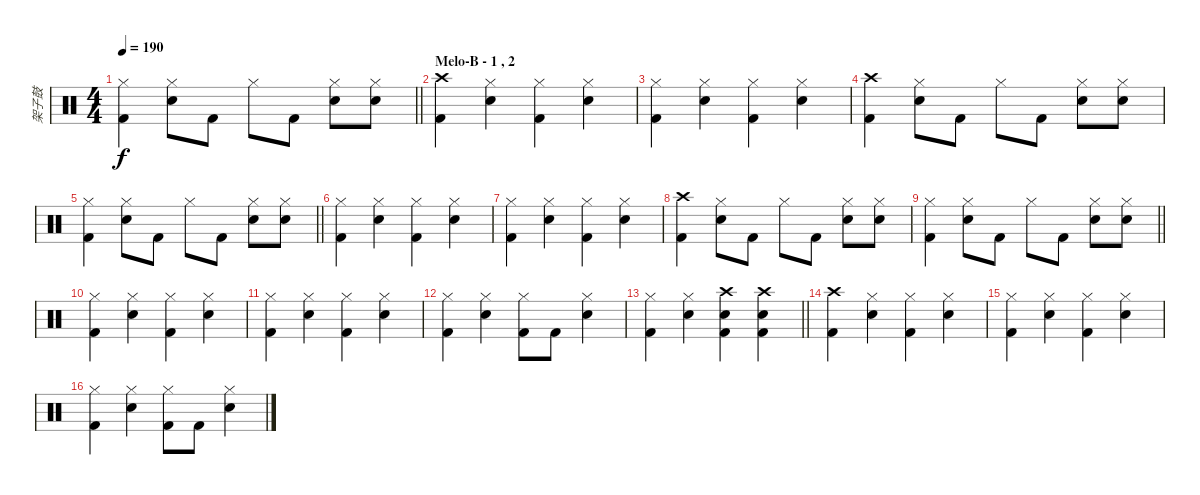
\track ("架子鼓" "架子鼓") {instrument percussion}
\staff {score}
\articulation defaults
\ts (4 4)
\tempo 190
\clef neutral
\barLineRight lightlight
\ks c
("Hi-Hat (closed)" "Kick (hit) 2").4{dy f} ("Hi-Hat (closed)" "Electric Snare (hit)").8 "Kick (hit) 2".8 "Hi-Hat (closed)".8 "Kick (hit) 2".8 ("Hi-Hat (closed)" "Electric Snare (hit)").8 ("Hi-Hat (closed)" "Electric Snare (hit)").8 |
\section ("" "Melo-B - 1 , 2")
("Crash high (hit)" "Kick (hit) 2").4 ("Hi-Hat (closed)" "Electric Snare (hit)").4 ("Hi-Hat (closed)" "Kick (hit) 2").4 ("Hi-Hat (closed)" "Electric Snare (hit)").4 |
("Hi-Hat (closed)" "Kick (hit) 2").4 ("Hi-Hat (closed)" "Electric Snare (hit)").4 ("Hi-Hat (closed)" "Kick (hit) 2").4 ("Hi-Hat (closed)" "Electric Snare (hit)").4 |
("Crash high (hit)" "Kick (hit) 2").4 ("Hi-Hat (closed)" "Electric Snare (hit)").8 "Kick (hit) 2".8 "Hi-Hat (closed)".8 "Kick (hit) 2".8 ("Hi-Hat (closed)" "Electric Snare (hit)").8 ("Hi-Hat (closed)" "Electric Snare (hit)").8 |
\barLineRight lightlight
("Hi-Hat (closed)" "Kick (hit) 2").4 ("Hi-Hat (closed)" "Electric Snare (hit)").8 "Kick (hit) 2".8 "Hi-Hat (closed)".8 "Kick (hit) 2".8 ("Hi-Hat (closed)" "Electric Snare (hit)").8 ("Hi-Hat (closed)" "Electric Snare (hit)").8 |
("Hi-Hat (closed)" "Kick (hit) 2").4 ("Hi-Hat (closed)" "Electric Snare (hit)").4 ("Hi-Hat (closed)" "Kick (hit) 2").4 ("Hi-Hat (closed)" "Electric Snare (hit)").4 |
("Hi-Hat (closed)" "Kick (hit) 2").4 ("Hi-Hat (closed)" "Electric Snare (hit)").4 ("Hi-Hat (closed)" "Kick (hit) 2").4 ("Hi-Hat (closed)" "Electric Snare (hit)").4 |
("Crash high (hit)" "Kick (hit) 2").4 ("Hi-Hat (closed)" "Electric Snare (hit)").8 "Kick (hit) 2".8 "Hi-Hat (closed)".8 "Kick (hit) 2".8 ("Hi-Hat (closed)" "Electric Snare (hit)").8 ("Hi-Hat (closed)" "Electric Snare (hit)").8 |
\barLineRight lightlight
("Hi-Hat (closed)" "Kick (hit) 2").4 ("Hi-Hat (closed)" "Electric Snare (hit)").8 "Kick (hit) 2".8 "Hi-Hat (closed)".8 "Kick (hit) 2".8 ("Hi-Hat (closed)" "Electric Snare (hit)").8 ("Hi-Hat (closed)" "Electric Snare (hit)").8 |
("Hi-Hat (closed)" "Kick (hit) 2").4 ("Hi-Hat (closed)" "Electric Snare (hit)").4 ("Hi-Hat (closed)" "Kick (hit) 2").4 ("Hi-Hat (closed)" "Electric Snare (hit)").4 |
("Hi-Hat (closed)" "Kick (hit) 2").4 ("Hi-Hat (closed)" "Electric Snare (hit)").4 ("Hi-Hat (closed)" "Kick (hit) 2").4 ("Hi-Hat (closed)" "Electric Snare (hit)").4 |
("Hi-Hat (closed)" "Kick (hit) 2").4 ("Hi-Hat (closed)" "Electric Snare (hit)").4 ("Hi-Hat (closed)" "Kick (hit) 2").8 "Kick (hit) 2".8 ("Hi-Hat (closed)" "Electric Snare (hit)").4 |
\barLineRight lightlight
("Hi-Hat (closed)" "Kick (hit) 2").4 ("Hi-Hat (closed)" "Electric Snare (hit)").4 ("Crash high (hit)" "Electric Snare (hit)" "Kick (hit) 2").4 ("Crash high (hit)" "Electric Snare (hit)" "Kick (hit) 2").4 |
("Crash high (hit)" "Kick (hit) 2").4 ("Hi-Hat (closed)" "Electric Snare (hit)").4 ("Hi-Hat (closed)" "Kick (hit) 2").4 ("Hi-Hat (closed)" "Electric Snare (hit)").4 |
("Hi-Hat (closed)" "Kick (hit) 2").4 ("Hi-Hat (closed)" "Electric Snare (hit)").4 ("Hi-Hat (closed)" "Kick (hit) 2").4 ("Hi-Hat (closed)" "Electric Snare (hit)").4 |
("Hi-Hat (closed)" "Kick (hit) 2").4 ("Hi-Hat (closed)" "Electric Snare (hit)").4 ("Hi-Hat (closed)" "Kick (hit) 2").8 "Kick (hit) 2".8 ("Hi-Hat (closed)" "Electric Snare (hit)").4
